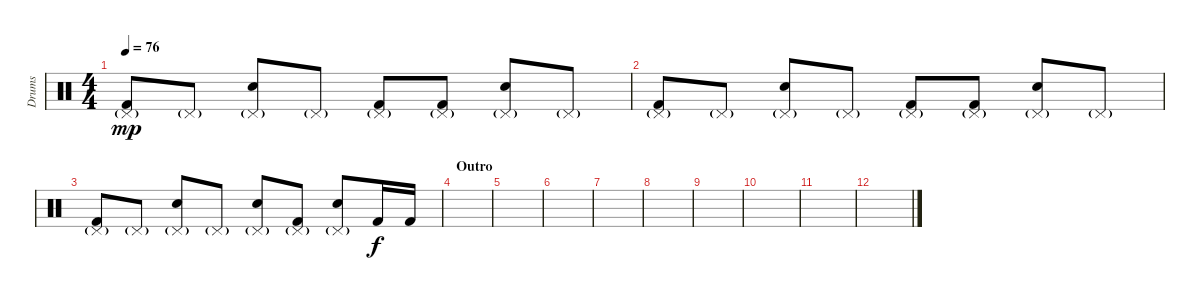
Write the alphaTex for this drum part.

\track ("Drums" "Drums") {instrument percussion}
\staff {score}
\articulation defaults
\ts (4 4)
\tempo 76
\clef neutral
\ks c
("Pedal Hi-Hat (hit)"{g} "Kick (hit) 2").8{dy mp} "Pedal Hi-Hat (hit)"{g}.8 ("Pedal Hi-Hat (hit)"{g} "Snare (hit) 2").8 "Pedal Hi-Hat (hit)"{g}.8 ("Pedal Hi-Hat (hit)"{g} "Kick (hit) 2").8 ("Pedal Hi-Hat (hit)"{g} "Kick (hit) 2").8 ("Pedal Hi-Hat (hit)"{g} "Snare (hit) 2").8 "Pedal Hi-Hat (hit)"{g}.8 |
("Pedal Hi-Hat (hit)"{g} "Kick (hit) 2").8 "Pedal Hi-Hat (hit)"{g}.8 ("Pedal Hi-Hat (hit)"{g} "Snare (hit) 2").8 "Pedal Hi-Hat (hit)"{g}.8 ("Pedal Hi-Hat (hit)"{g} "Kick (hit) 2").8 ("Pedal Hi-Hat (hit)"{g} "Kick (hit) 2").8 ("Pedal Hi-Hat (hit)"{g} "Snare (hit) 2").8 "Pedal Hi-Hat (hit)"{g}.8 |
("Pedal Hi-Hat (hit)"{g} "Kick (hit) 2").8 "Pedal Hi-Hat (hit)"{g}.8 ("Pedal Hi-Hat (hit)"{g} "Snare (hit) 2").8 "Pedal Hi-Hat (hit)"{g}.8 ("Pedal Hi-Hat (hit)"{g} "Snare (hit) 2").8 ("Pedal Hi-Hat (hit)"{g} "Kick (hit) 2").8 ("Pedal Hi-Hat (hit)"{g} "Snare (hit) 2").8 "Kick (hit) 2".16{dy f} "Kick (hit) 2".16 |
\section ("" "Outro")
|
|
|
|
|
|
|
\section ("" "")
|
\section ("" "")
